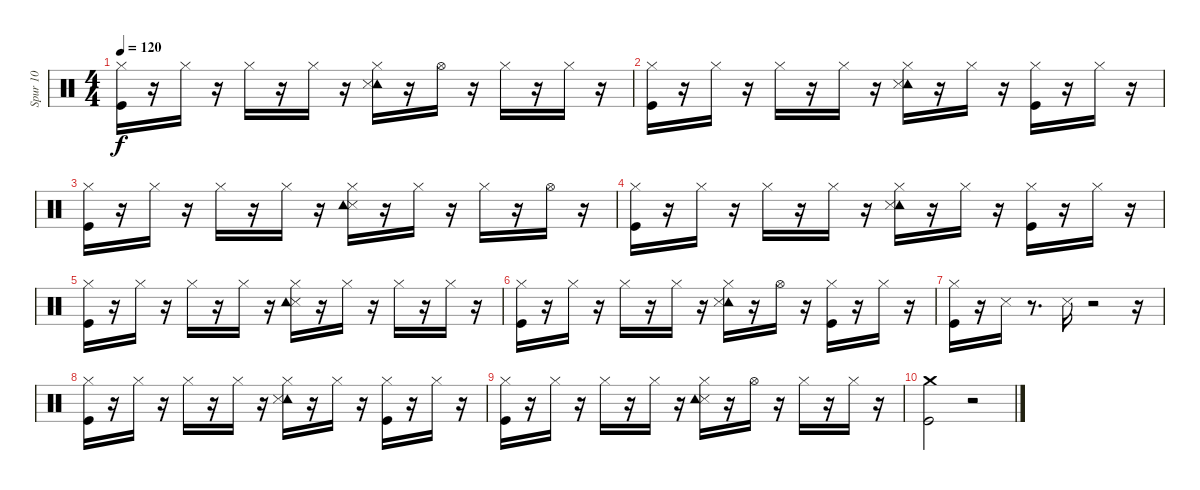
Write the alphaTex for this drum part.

\track ("Spur 10" "Spur 10") {instrument percussion}
\staff {score}
\articulation defaults
\ts (4 4)
\tempo 120
\clef neutral
\ks c
("Kick (hit)" "Hi-Hat (closed)").16{dy f} r.16 "Hi-Hat (closed)".16 r.16 "Hi-Hat (closed)".16 r.16 "Hi-Hat (closed)".16 r.16 ("Tambourine (hit)" "Snare (side stick) 3" "Hi-Hat (closed)").16 r.16 "Hi-Hat (open)".16 r.16 "Hi-Hat (closed)".16 r.16 "Hi-Hat (closed)".16 r.16 |
("Kick (hit)" "Hi-Hat (closed)").16 r.16 "Hi-Hat (closed)".16 r.16 "Hi-Hat (closed)".16 r.16 "Hi-Hat (closed)".16 r.16 ("Tambourine (hit)" "Snare (side stick) 3" "Hi-Hat (closed)").16 r.16 "Hi-Hat (closed)".16 r.16 ("Kick (hit)" "Hi-Hat (closed)").16 r.16 "Hi-Hat (closed)".16 r.16 |
("Kick (hit)" "Hi-Hat (closed)").16 r.16 "Hi-Hat (closed)".16 r.16 "Hi-Hat (closed)".16 r.16 "Hi-Hat (closed)".16 r.16 ("Snare (side stick) 3" "Tambourine (hit)" "Hi-Hat (closed)").16 r.16 "Hi-Hat (closed)".16 r.16 "Hi-Hat (closed)".16 r.16 "Hi-Hat (open)".16 r.16 |
("Kick (hit)" "Hi-Hat (closed)").16 r.16 "Hi-Hat (closed)".16 r.16 "Hi-Hat (closed)".16 r.16 "Hi-Hat (closed)".16 r.16 ("Tambourine (hit)" "Snare (side stick) 3" "Hi-Hat (closed)").16 r.16 "Hi-Hat (closed)".16 r.16 ("Kick (hit)" "Hi-Hat (closed)").16 r.16 "Hi-Hat (closed)".16 r.16 |
("Kick (hit)" "Hi-Hat (closed)").16 r.16 "Hi-Hat (closed)".16 r.16 "Hi-Hat (closed)".16 r.16 "Hi-Hat (closed)".16 r.16 ("Snare (side stick) 3" "Tambourine (hit)" "Hi-Hat (closed)").16 r.16 "Hi-Hat (closed)".16 r.16 "Hi-Hat (closed)".16 r.16 "Hi-Hat (closed)".16 r.16 |
("Kick (hit)" "Hi-Hat (closed)").16 r.16 "Hi-Hat (closed)".16 r.16 "Hi-Hat (closed)".16 r.16 "Hi-Hat (closed)".16 r.16 ("Tambourine (hit)" "Snare (side stick) 3" "Hi-Hat (closed)").16 r.16 "Hi-Hat (open)".16 r.16 ("Kick (hit)" "Hi-Hat (closed)").16 r.16 "Hi-Hat (closed)".16 r.16 |
("Hi-Hat (closed)" "Kick (hit)").16 r.16 "Snare (side stick) 3".16 r.8{d} "Snare (side stick) 3".16 r.2 r.16 |
("Kick (hit)" "Hi-Hat (closed)").16 r.16 "Hi-Hat (closed)".16 r.16 "Hi-Hat (closed)".16 r.16 "Hi-Hat (closed)".16 r.16 ("Tambourine (hit)" "Snare (side stick) 3" "Hi-Hat (closed)").16 r.16 "Hi-Hat (closed)".16 r.16 ("Kick (hit)" "Hi-Hat (closed)").16 r.16 "Hi-Hat (closed)".16 r.16 |
("Kick (hit)" "Hi-Hat (closed)").16 r.16 "Hi-Hat (closed)".16 r.16 "Hi-Hat (closed)".16 r.16 "Hi-Hat (closed)".16 r.16 ("Snare (side stick) 3" "Tambourine (hit)" "Hi-Hat (closed)").16 r.16 "Hi-Hat (open)".16 r.16 "Hi-Hat (closed)".16 r.16 "Hi-Hat (closed)".16 r.16 |
("Crash medium (hit)" "Kick (hit)").2 r.2
